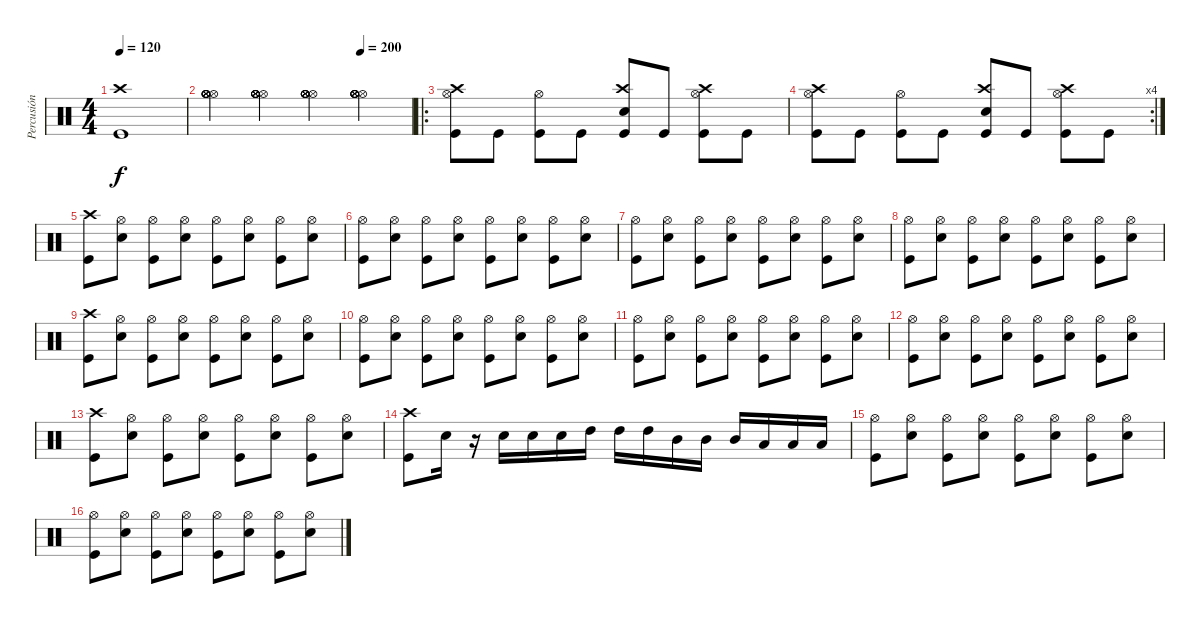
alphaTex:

\track ("Percusión" "Percusión") {instrument percussion}
\staff {score}
\articulation defaults
\ts (4 4)
\tempo 120
\clef neutral
\ks c
("Kick (hit)" "Crash high (hit)").1{dy f} |
\tempo (200 0.75)
("Hi-Hat (open)" "Hi-Hat (open)" "Hi-Hat (open)" "Hi-Hat (open)" "Hi-Hat (open)" "Hi-Hat (open)").4 ("Hi-Hat (open)" "Hi-Hat (open)" "Hi-Hat (open)" "Hi-Hat (open)" "Hi-Hat (open)" "Hi-Hat (open)").4 ("Hi-Hat (open)" "Hi-Hat (open)" "Hi-Hat (open)" "Hi-Hat (open)" "Hi-Hat (open)" "Hi-Hat (open)").4 ("Hi-Hat (open)" "Hi-Hat (open)" "Hi-Hat (open)" "Hi-Hat (open)" "Hi-Hat (open)" "Hi-Hat (open)").4 |
\ro
("Crash high (hit)" "Hi-Hat (open)" "Kick (hit)").8 "Kick (hit)".8 ("Hi-Hat (open)" "Kick (hit)").8 "Kick (hit)".8 ("Crash high (hit)" "Snare (hit) 2" "Kick (hit)").8 "Kick (hit)".8 ("Crash high (hit)" "Hi-Hat (open)" "Kick (hit)").8 "Kick (hit)".8 |
\rc 4
("Crash high (hit)" "Hi-Hat (open)" "Kick (hit)").8 "Kick (hit)".8 ("Hi-Hat (open)" "Kick (hit)").8 "Kick (hit)".8 ("Crash high (hit)" "Snare (hit) 2" "Kick (hit)").8 "Kick (hit)".8 ("Crash high (hit)" "Hi-Hat (open)" "Kick (hit)").8 "Kick (hit)".8 |
("Crash high (hit)" "Kick (hit)").8 ("Hi-Hat (open)" "Snare (hit) 2").8 ("Hi-Hat (open)" "Kick (hit)").8 ("Hi-Hat (open)" "Snare (hit) 2").8 ("Hi-Hat (open)" "Kick (hit)").8 ("Hi-Hat (open)" "Snare (hit) 2").8 ("Hi-Hat (open)" "Kick (hit)").8 ("Hi-Hat (open)" "Snare (hit) 2").8 |
("Hi-Hat (open)" "Kick (hit)").8 ("Hi-Hat (open)" "Snare (hit) 2").8 ("Hi-Hat (open)" "Kick (hit)").8 ("Hi-Hat (open)" "Snare (hit) 2").8 ("Hi-Hat (open)" "Kick (hit)").8 ("Hi-Hat (open)" "Snare (hit) 2").8 ("Hi-Hat (open)" "Kick (hit)").8 ("Hi-Hat (open)" "Snare (hit) 2").8 |
("Hi-Hat (open)" "Kick (hit)").8 ("Hi-Hat (open)" "Snare (hit) 2").8 ("Hi-Hat (open)" "Kick (hit)").8 ("Hi-Hat (open)" "Snare (hit) 2").8 ("Hi-Hat (open)" "Kick (hit)").8 ("Hi-Hat (open)" "Snare (hit) 2").8 ("Hi-Hat (open)" "Kick (hit)").8 ("Hi-Hat (open)" "Snare (hit) 2").8 |
("Hi-Hat (open)" "Kick (hit)").8 ("Hi-Hat (open)" "Snare (hit) 2").8 ("Hi-Hat (open)" "Kick (hit)").8 ("Hi-Hat (open)" "Snare (hit) 2").8 ("Hi-Hat (open)" "Kick (hit)").8 ("Hi-Hat (open)" "Snare (hit) 2").8 ("Hi-Hat (open)" "Kick (hit)").8 ("Hi-Hat (open)" "Snare (hit) 2").8 |
("Crash high (hit)" "Kick (hit)").8 ("Hi-Hat (open)" "Snare (hit) 2").8 ("Hi-Hat (open)" "Kick (hit)").8 ("Hi-Hat (open)" "Snare (hit) 2").8 ("Hi-Hat (open)" "Kick (hit)").8 ("Hi-Hat (open)" "Snare (hit) 2").8 ("Hi-Hat (open)" "Kick (hit)").8 ("Hi-Hat (open)" "Snare (hit) 2").8 |
("Hi-Hat (open)" "Kick (hit)").8 ("Hi-Hat (open)" "Snare (hit) 2").8 ("Hi-Hat (open)" "Kick (hit)").8 ("Hi-Hat (open)" "Snare (hit) 2").8 ("Hi-Hat (open)" "Kick (hit)").8 ("Hi-Hat (open)" "Snare (hit) 2").8 ("Hi-Hat (open)" "Kick (hit)").8 ("Hi-Hat (open)" "Snare (hit) 2").8 |
("Hi-Hat (open)" "Kick (hit)").8 ("Hi-Hat (open)" "Snare (hit) 2").8 ("Hi-Hat (open)" "Kick (hit)").8 ("Hi-Hat (open)" "Snare (hit) 2").8 ("Hi-Hat (open)" "Kick (hit)").8 ("Hi-Hat (open)" "Snare (hit) 2").8 ("Hi-Hat (open)" "Kick (hit)").8 ("Hi-Hat (open)" "Snare (hit) 2").8 |
("Hi-Hat (open)" "Kick (hit)").8 ("Hi-Hat (open)" "Snare (hit) 2").8 ("Hi-Hat (open)" "Kick (hit)").8 ("Hi-Hat (open)" "Snare (hit) 2").8 ("Hi-Hat (open)" "Kick (hit)").8 ("Hi-Hat (open)" "Snare (hit) 2").8 ("Hi-Hat (open)" "Kick (hit)").8 ("Hi-Hat (open)" "Snare (hit) 2").8 |
("Crash high (hit)" "Kick (hit)").8 ("Hi-Hat (open)" "Snare (hit) 2").8 ("Hi-Hat (open)" "Kick (hit)").8 ("Hi-Hat (open)" "Snare (hit) 2").8 ("Hi-Hat (open)" "Kick (hit)").8 ("Hi-Hat (open)" "Snare (hit) 2").8 ("Hi-Hat (open)" "Kick (hit)").8 ("Hi-Hat (open)" "Snare (hit) 2").8 |
("Crash high (hit)" "Kick (hit)").8 "Snare (hit) 2".16 r.16 "Snare (hit) 2".16 "Snare (hit) 2".16 "Snare (hit) 2".16 "High Tom (hit)".16 "High Tom (hit)".16 "High Tom (hit)".16 "Mid Tom (hit)".16 "Mid Tom (hit)".16 "Mid Tom (hit)".16 "Low Tom (hit)".16 "Low Tom (hit)".16 "Low Tom (hit)".16 |
("Hi-Hat (open)" "Kick (hit)").8 ("Hi-Hat (open)" "Snare (hit) 2").8 ("Hi-Hat (open)" "Kick (hit)").8 ("Hi-Hat (open)" "Snare (hit) 2").8 ("Hi-Hat (open)" "Kick (hit)").8 ("Hi-Hat (open)" "Snare (hit) 2").8 ("Hi-Hat (open)" "Kick (hit)").8 ("Hi-Hat (open)" "Snare (hit) 2").8 |
("Hi-Hat (open)" "Kick (hit)").8 ("Hi-Hat (open)" "Snare (hit) 2").8 ("Hi-Hat (open)" "Kick (hit)").8 ("Hi-Hat (open)" "Snare (hit) 2").8 ("Hi-Hat (open)" "Kick (hit)").8 ("Hi-Hat (open)" "Snare (hit) 2").8 ("Hi-Hat (open)" "Kick (hit)").8 ("Hi-Hat (open)" "Snare (hit) 2").8
